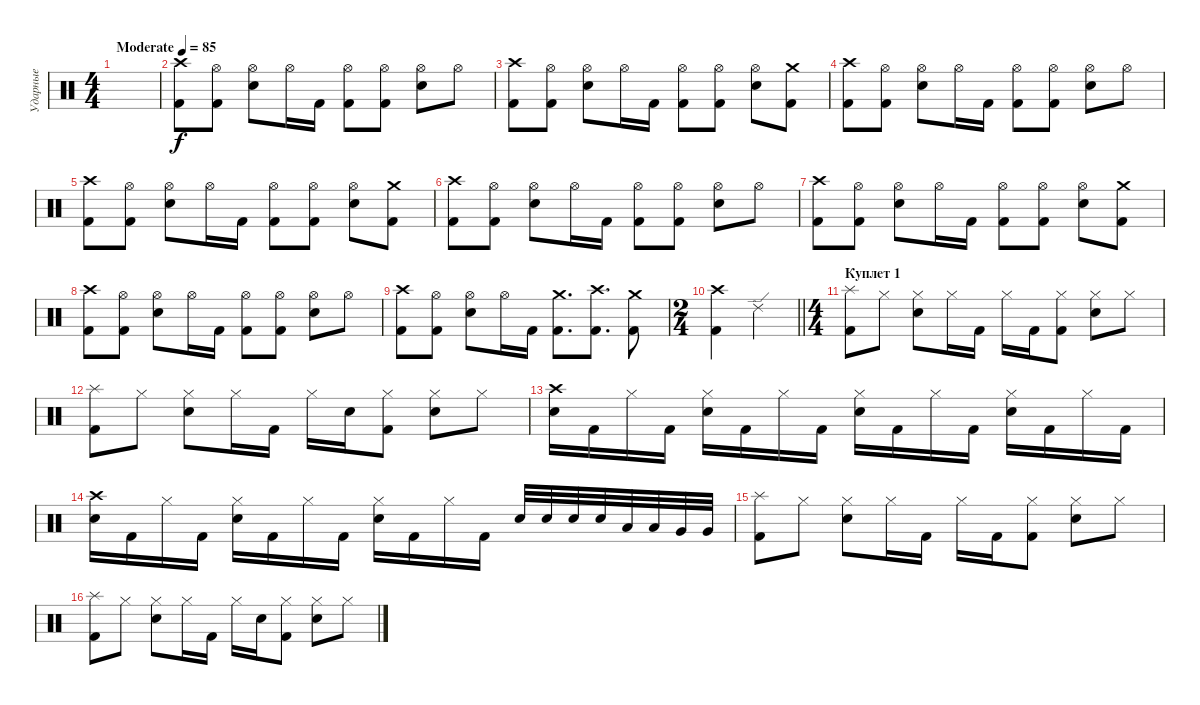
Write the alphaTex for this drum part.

\track ("Ударные" "Ударные") {instrument percussion}
\staff {score}
\articulation defaults
\ts (4 4)
\tempo (85 "Moderate")
\clef neutral
\ks c
|
("Crash high (hit)" "Kick (hit) 2").8 ("Hi-Hat (open)" "Kick (hit) 2").8 ("Hi-Hat (open)" "Snare (hit) 2").8 "Hi-Hat (open)".16 "Kick (hit) 2".16 ("Hi-Hat (open)" "Kick (hit) 2").8 ("Hi-Hat (open)" "Kick (hit) 2").8 ("Hi-Hat (open)" "Snare (hit) 2").8 "Hi-Hat (open)".8 |
("Crash high (hit)" "Kick (hit) 2").8 ("Hi-Hat (open)" "Kick (hit) 2").8 ("Hi-Hat (open)" "Snare (hit) 2").8 "Hi-Hat (open)".16 "Kick (hit) 2".16 ("Hi-Hat (open)" "Kick (hit) 2").8 ("Hi-Hat (open)" "Kick (hit) 2").8 ("Hi-Hat (open)" "Snare (hit) 2").8 ("Crash medium (hit)" "Kick (hit) 2").8 |
("Crash high (hit)" "Kick (hit) 2").8 ("Hi-Hat (open)" "Kick (hit) 2").8 ("Hi-Hat (open)" "Snare (hit) 2").8 "Hi-Hat (open)".16 "Kick (hit) 2".16 ("Hi-Hat (open)" "Kick (hit) 2").8 ("Hi-Hat (open)" "Kick (hit) 2").8 ("Hi-Hat (open)" "Snare (hit) 2").8 "Hi-Hat (open)".8 |
("Crash high (hit)" "Kick (hit) 2").8 ("Hi-Hat (open)" "Kick (hit) 2").8 ("Hi-Hat (open)" "Snare (hit) 2").8 "Hi-Hat (open)".16 "Kick (hit) 2".16 ("Hi-Hat (open)" "Kick (hit) 2").8 ("Hi-Hat (open)" "Kick (hit) 2").8 ("Hi-Hat (open)" "Snare (hit) 2").8 ("Crash medium (hit)" "Kick (hit) 2").8 |
("Crash high (hit)" "Kick (hit) 2").8 ("Hi-Hat (open)" "Kick (hit) 2").8 ("Hi-Hat (open)" "Snare (hit) 2").8 "Hi-Hat (open)".16 "Kick (hit) 2".16 ("Hi-Hat (open)" "Kick (hit) 2").8 ("Hi-Hat (open)" "Kick (hit) 2").8 ("Hi-Hat (open)" "Snare (hit) 2").8 "Hi-Hat (open)".8 |
("Crash high (hit)" "Kick (hit) 2").8 ("Hi-Hat (open)" "Kick (hit) 2").8 ("Hi-Hat (open)" "Snare (hit) 2").8 "Hi-Hat (open)".16 "Kick (hit) 2".16 ("Hi-Hat (open)" "Kick (hit) 2").8 ("Hi-Hat (open)" "Kick (hit) 2").8 ("Hi-Hat (open)" "Snare (hit) 2").8 ("Crash medium (hit)" "Kick (hit) 2").8 |
("Crash high (hit)" "Kick (hit) 2").8 ("Hi-Hat (open)" "Kick (hit) 2").8 ("Hi-Hat (open)" "Snare (hit) 2").8 "Hi-Hat (open)".16 "Kick (hit) 2".16 ("Hi-Hat (open)" "Kick (hit) 2").8 ("Hi-Hat (open)" "Kick (hit) 2").8 ("Hi-Hat (open)" "Snare (hit) 2").8 "Hi-Hat (open)".8 |
("Crash high (hit)" "Kick (hit) 2").8 ("Hi-Hat (open)" "Kick (hit) 2").8 ("Hi-Hat (open)" "Snare (hit) 2").8 "Hi-Hat (open)".16 "Kick (hit) 2".16 ("Crash medium (hit)" "Kick (hit) 2").8{d} ("Crash high (hit)" "Kick (hit) 2").8{d} ("Crash medium (hit)" "Kick (hit) 2").8 |
\ts (2 4)
\barLineRight lightlight
("Crash high (hit)" "Kick (hit) 2").4 "Ride (edge) 2".4 |
\ts (4 4)
\section ("" "Куплет 1")
("Splash (hit)" "Kick (hit) 2").8 "Hi-Hat (closed)".8 ("Hi-Hat (closed)" "Snare (hit) 2").8 "Hi-Hat (closed)".16 "Kick (hit) 2".16 "Hi-Hat (closed)".16 "Kick (hit) 2".16 ("Hi-Hat (closed)" "Kick (hit) 2").8 ("Hi-Hat (closed)" "Snare (hit) 2").8 "Hi-Hat (closed)".8 |
("Splash (hit)" "Kick (hit) 2").8 "Hi-Hat (closed)".8 ("Hi-Hat (closed)" "Snare (hit) 2").8 "Hi-Hat (closed)".16 "Kick (hit) 2".16 "Hi-Hat (closed)".16 "Snare (hit) 2".16 ("Hi-Hat (closed)" "Kick (hit) 2").8 ("Hi-Hat (closed)" "Snare (hit) 2").8 "Hi-Hat (closed)".8 |
("Crash high (hit)" "Snare (hit) 2").16 "Kick (hit) 2".16 "Hi-Hat (closed)".16 "Kick (hit) 2".16 ("Hi-Hat (closed)" "Snare (hit) 2").16 "Kick (hit) 2".16 "Hi-Hat (closed)".16 "Kick (hit) 2".16 ("Hi-Hat (closed)" "Snare (hit) 2").16 "Kick (hit) 2".16 "Hi-Hat (closed)".16 "Kick (hit) 2".16 ("Hi-Hat (closed)" "Snare (hit) 2").16 "Kick (hit) 2".16 "Hi-Hat (closed)".16 "Kick (hit) 2".16 |
("Crash high (hit)" "Snare (hit) 2").16 "Kick (hit) 2".16 "Hi-Hat (closed)".16 "Kick (hit) 2".16 ("Hi-Hat (closed)" "Snare (hit) 2").16 "Kick (hit) 2".16 "Hi-Hat (closed)".16 "Kick (hit) 2".16 ("Hi-Hat (closed)" "Snare (hit) 2").16 "Kick (hit) 2".16 "Hi-Hat (closed)".16 "Kick (hit) 2".16 "Snare (hit) 2".32 "Snare (hit) 2".32 "Snare (hit) 2".32 "Snare (hit) 2".32 "Low Tom (hit)".32 "Low Tom (hit)".32 "Very Low Tom (hit)".32 "Very Low Tom (hit)".32 |
("Splash (hit)" "Kick (hit) 2").8 "Hi-Hat (closed)".8 ("Hi-Hat (closed)" "Snare (hit) 2").8 "Hi-Hat (closed)".16 "Kick (hit) 2".16 "Hi-Hat (closed)".16 "Kick (hit) 2".16 ("Hi-Hat (closed)" "Kick (hit) 2").8 ("Hi-Hat (closed)" "Snare (hit) 2").8 "Hi-Hat (closed)".8 |
("Splash (hit)" "Kick (hit) 2").8 "Hi-Hat (closed)".8 ("Hi-Hat (closed)" "Snare (hit) 2").8 "Hi-Hat (closed)".16 "Kick (hit) 2".16 "Hi-Hat (closed)".16 "Snare (hit) 2".16 ("Hi-Hat (closed)" "Kick (hit) 2").8 ("Hi-Hat (closed)" "Snare (hit) 2").8 "Hi-Hat (closed)".8
